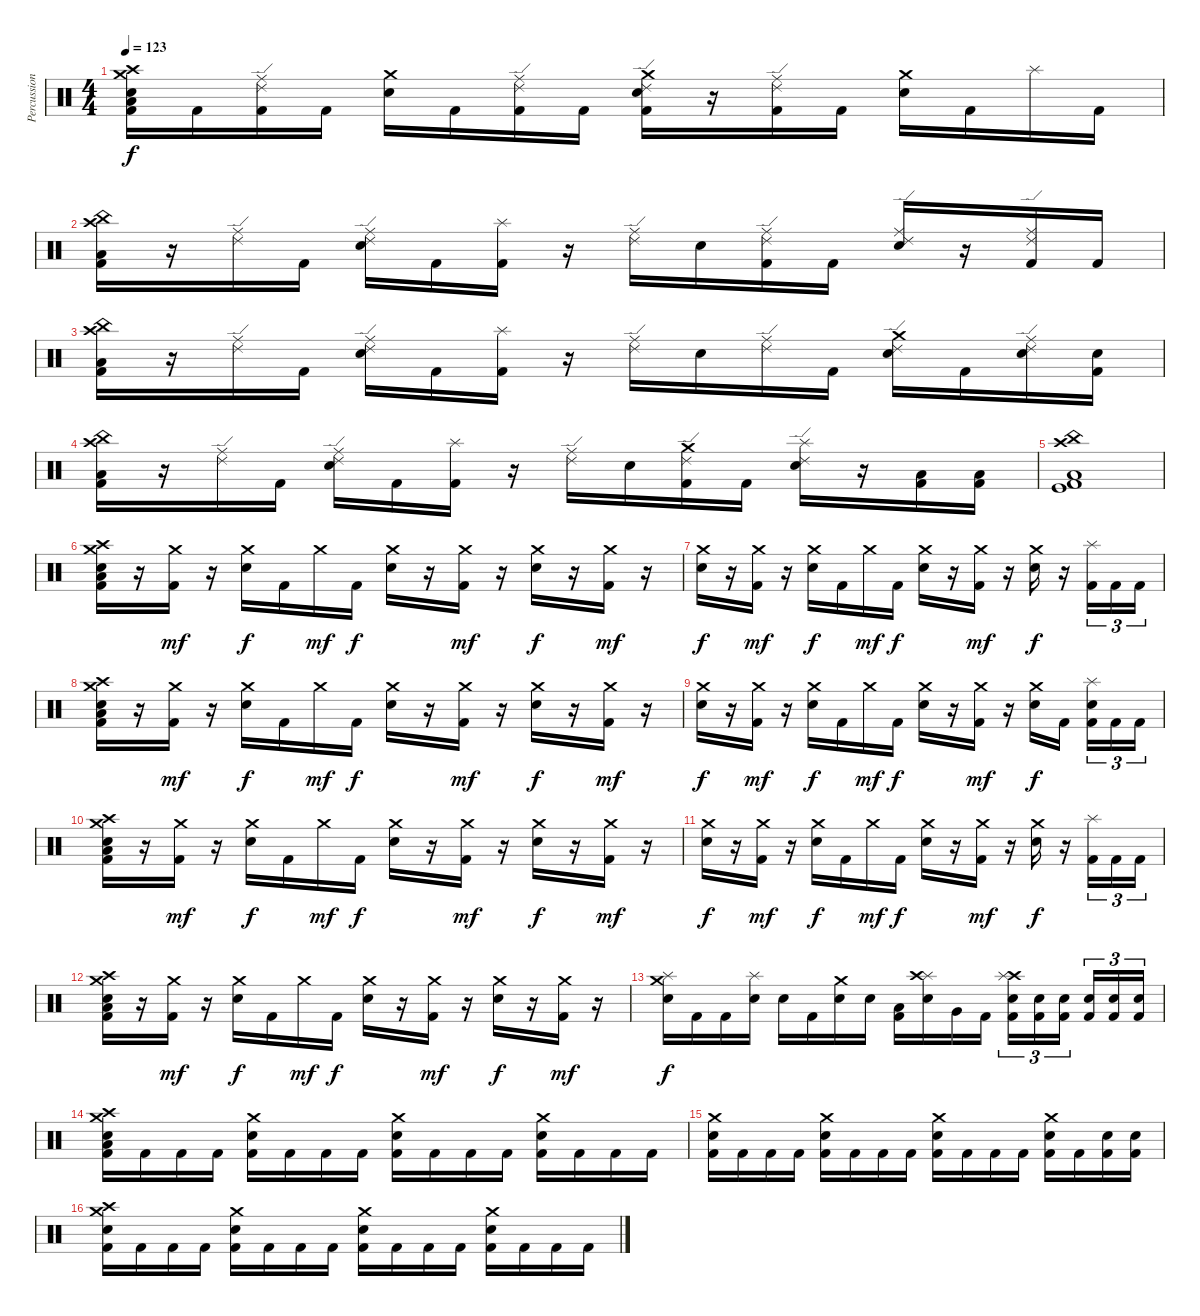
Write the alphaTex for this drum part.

\track ("Percussion" "Percussion") {instrument percussion}
\staff {score}
\articulation defaults
\ts (4 4)
\tempo 123
\clef neutral
\ks c
("Crash medium (hit)" "Crash high (hit)" "Electric Snare (hit)" "Low Floor Tom (hit)" "Kick (hit) 2").16{dy f} "Kick (hit) 2".16 ("Ride (middle)" "Ride (edge) 2" "Kick (hit) 2").16 "Kick (hit) 2".16 ("Crash medium (hit)" "Electric Snare (hit)").16 "Kick (hit) 2".16 ("Ride (middle)" "Ride (edge) 2" "Kick (hit) 2").16 "Kick (hit) 2".16 ("Crash medium (hit)" "Ride (edge) 2" "Electric Snare (hit)" "Kick (hit) 2").16 r.16 ("Ride (middle)" "Ride (edge) 2" "Kick (hit) 2").16 "Kick (hit) 2".16 ("Crash medium (hit)" "Electric Snare (hit)").16 "Kick (hit) 2".16 "Splash (hit)".16 "Kick (hit) 2".16 |
("China (hit)" "Crash high (hit)" "Low Floor Tom (hit)" "Kick (hit) 2").16 r.16 ("Ride (middle)" "Ride (edge) 2").16 "Kick (hit) 2".16 ("Ride (middle)" "Ride (edge) 2" "Electric Snare (hit)").16 "Kick (hit) 2".16 ("Splash (hit)" "Kick (hit) 2").16 r.16 ("Ride (middle)" "Ride (edge) 2").16 "Electric Snare (hit)".16 ("Ride (middle)" "Ride (edge) 2" "Kick (hit) 2").16 "Kick (hit) 2".16 ("Ride (middle)" "Ride (edge) 2" "Electric Snare (hit)").16 r.16 ("Ride (middle)" "Ride (edge) 2" "Kick (hit) 2").16 "Kick (hit) 2".16 |
("China (hit)" "Crash high (hit)" "Low Floor Tom (hit)" "Kick (hit) 2").16 r.16 ("Ride (middle)" "Ride (edge) 2").16 "Kick (hit) 2".16 ("Ride (middle)" "Ride (edge) 2" "Electric Snare (hit)").16 "Kick (hit) 2".16 ("Splash (hit)" "Kick (hit) 2").16 r.16 ("Ride (middle)" "Ride (edge) 2").16 "Electric Snare (hit)".16 ("Ride (middle)" "Ride (edge) 2").16 "Kick (hit) 2".16 ("Crash medium (hit)" "Ride (edge) 2" "Electric Snare (hit)").16 "Kick (hit) 2".16 ("Ride (middle)" "Ride (edge) 2" "Electric Snare (hit)").16 ("Electric Snare (hit)" "Kick (hit) 2").16 |
("China (hit)" "Crash high (hit)" "Low Floor Tom (hit)" "Kick (hit) 2").16 r.16 ("Ride (middle)" "Ride (edge) 2").16 "Kick (hit) 2".16 ("Ride (middle)" "Ride (edge) 2" "Electric Snare (hit)").16 "Kick (hit) 2".16 ("Splash (hit)" "Kick (hit) 2").16 r.16 ("Ride (middle)" "Ride (edge) 2").16 "Electric Snare (hit)".16 ("Crash medium (hit)" "Ride (edge) 2" "Kick (hit) 2").16 "Kick (hit) 2".16 ("Splash (hit)" "Ride (edge) 2" "Electric Snare (hit)").16 r.16 ("Low Tom (hit)" "Kick (hit) 2").16 ("Low Tom (hit)" "Kick (hit) 2").16 |
("China (hit)" "Crash high (hit)" "Low Floor Tom (hit)" "Kick (hit)" "Kick (hit) 2").1 |
("Crash medium (hit)" "Crash high (hit)" "Electric Snare (hit)" "Low Floor Tom (hit)" "Kick (hit) 2").16 r.16 ("Crash medium (hit)" "Kick (hit) 2").16{dy mf} r.16 ("Crash medium (hit)" "Electric Snare (hit)").16{dy f} "Kick (hit) 2".16 "Crash medium (hit)".16{dy mf} "Kick (hit) 2".16{dy f} ("Crash medium (hit)" "Electric Snare (hit)").16 r.16 ("Crash medium (hit)" "Kick (hit) 2").16{dy mf} r.16 ("Crash medium (hit)" "Electric Snare (hit)").16{dy f} r.16 ("Crash medium (hit)" "Kick (hit) 2").16{dy mf} r.16 |
("Crash medium (hit)" "Electric Snare (hit)").16{dy f} r.16 ("Crash medium (hit)" "Kick (hit) 2").16{dy mf} r.16 ("Crash medium (hit)" "Electric Snare (hit)").16{dy f} "Kick (hit) 2".16 "Crash medium (hit)".16{dy mf} "Kick (hit) 2".16{dy f} ("Crash medium (hit)" "Electric Snare (hit)").16 r.16 ("Crash medium (hit)" "Kick (hit) 2").16{dy mf} r.16 ("Crash medium (hit)" "Electric Snare (hit)").16{dy f} r.16 ("Splash (hit)" "Kick (hit) 2").16{tu (3 2)} "Kick (hit) 2".16{tu (3 2)} "Kick (hit) 2".16{tu (3 2)} |
("Crash medium (hit)" "Crash high (hit)" "Electric Snare (hit)" "Low Floor Tom (hit)" "Kick (hit) 2").16 r.16 ("Crash medium (hit)" "Kick (hit) 2").16{dy mf} r.16 ("Crash medium (hit)" "Electric Snare (hit)").16{dy f} "Kick (hit) 2".16 "Crash medium (hit)".16{dy mf} "Kick (hit) 2".16{dy f} ("Crash medium (hit)" "Electric Snare (hit)").16 r.16 ("Crash medium (hit)" "Kick (hit) 2").16{dy mf} r.16 ("Crash medium (hit)" "Electric Snare (hit)").16{dy f} r.16 ("Crash medium (hit)" "Kick (hit) 2").16{dy mf} r.16 |
("Crash medium (hit)" "Electric Snare (hit)").16{dy f} r.16 ("Crash medium (hit)" "Kick (hit) 2").16{dy mf} r.16 ("Crash medium (hit)" "Electric Snare (hit)").16{dy f} "Kick (hit) 2".16 "Crash medium (hit)".16{dy mf} "Kick (hit) 2".16{dy f} ("Crash medium (hit)" "Electric Snare (hit)").16 r.16 ("Crash medium (hit)" "Kick (hit) 2").16{dy mf} r.16 ("Crash medium (hit)" "Electric Snare (hit)").16{dy f} "Kick (hit) 2".16 ("Splash (hit)" "Electric Snare (hit)" "Kick (hit) 2").16{tu (3 2)} "Kick (hit) 2".16{tu (3 2)} "Kick (hit) 2".16{tu (3 2)} |
("Crash medium (hit)" "Crash high (hit)" "Electric Snare (hit)" "Low Floor Tom (hit)" "Kick (hit) 2").16 r.16 ("Crash medium (hit)" "Kick (hit) 2").16{dy mf} r.16 ("Crash medium (hit)" "Electric Snare (hit)").16{dy f} "Kick (hit) 2".16 "Crash medium (hit)".16{dy mf} "Kick (hit) 2".16{dy f} ("Crash medium (hit)" "Electric Snare (hit)").16 r.16 ("Crash medium (hit)" "Kick (hit) 2").16{dy mf} r.16 ("Crash medium (hit)" "Electric Snare (hit)").16{dy f} r.16 ("Crash medium (hit)" "Kick (hit) 2").16{dy mf} r.16 |
("Crash medium (hit)" "Electric Snare (hit)").16{dy f} r.16 ("Crash medium (hit)" "Kick (hit) 2").16{dy mf} r.16 ("Crash medium (hit)" "Electric Snare (hit)").16{dy f} "Kick (hit) 2".16 "Crash medium (hit)".16{dy mf} "Kick (hit) 2".16{dy f} ("Crash medium (hit)" "Electric Snare (hit)").16 r.16 ("Crash medium (hit)" "Kick (hit) 2").16{dy mf} r.16 ("Crash medium (hit)" "Electric Snare (hit)").16{dy f} r.16 ("Splash (hit)" "Kick (hit) 2").16{tu (3 2)} "Kick (hit) 2".16{tu (3 2)} "Kick (hit) 2".16{tu (3 2)} |
("Crash medium (hit)" "Crash high (hit)" "Electric Snare (hit)" "Low Floor Tom (hit)" "Kick (hit) 2").16 r.16 ("Crash medium (hit)" "Kick (hit) 2").16{dy mf} r.16 ("Crash medium (hit)" "Electric Snare (hit)").16{dy f} "Kick (hit) 2".16 "Crash medium (hit)".16{dy mf} "Kick (hit) 2".16{dy f} ("Crash medium (hit)" "Electric Snare (hit)").16 r.16 ("Crash medium (hit)" "Kick (hit) 2").16{dy mf} r.16 ("Crash medium (hit)" "Electric Snare (hit)").16{dy f} r.16 ("Crash medium (hit)" "Kick (hit) 2").16{dy mf} r.16 |
("Crash medium (hit)" "Splash (hit)" "Electric Snare (hit)").16{dy f} "Kick (hit) 2".16 "Kick (hit) 2".16 ("Splash (hit)" "Electric Snare (hit)").16 "Electric Snare (hit)".16 "Kick (hit) 2".16 ("Crash medium (hit)" "Electric Snare (hit)").16 "Electric Snare (hit)".16 ("Low Tom (hit)" "Kick (hit) 2").16 ("Splash (hit)" "Crash high (hit)" "Electric Snare (hit)").16 "Very Low Tom (hit)".16 "Kick (hit) 2".16 ("Crash high (hit)" "Splash (hit)" "Electric Snare (hit)" "Kick (hit) 2").16{tu (3 2)} ("Electric Snare (hit)" "Kick (hit) 2").16{tu (3 2)} ("Electric Snare (hit)" "Kick (hit) 2").16{tu (3 2)} ("Electric Snare (hit)" "Kick (hit) 2").16{tu (3 2)} ("Electric Snare (hit)" "Kick (hit) 2").16{tu (3 2)} ("Electric Snare (hit)" "Kick (hit) 2").16{tu (3 2)} |
("Crash medium (hit)" "Crash high (hit)" "Electric Snare (hit)" "Low Floor Tom (hit)" "Kick (hit) 2").16 "Kick (hit) 2".16 "Kick (hit) 2".16 "Kick (hit) 2".16 ("Crash medium (hit)" "Electric Snare (hit)" "Kick (hit) 2").16 "Kick (hit) 2".16 "Kick (hit) 2".16 "Kick (hit) 2".16 ("Crash medium (hit)" "Electric Snare (hit)" "Kick (hit) 2").16 "Kick (hit) 2".16 "Kick (hit) 2".16 "Kick (hit) 2".16 ("Crash medium (hit)" "Electric Snare (hit)" "Kick (hit) 2").16 "Kick (hit) 2".16 "Kick (hit) 2".16 "Kick (hit) 2".16 |
("Crash medium (hit)" "Electric Snare (hit)" "Kick (hit) 2").16 "Kick (hit) 2".16 "Kick (hit) 2".16 "Kick (hit) 2".16 ("Crash medium (hit)" "Electric Snare (hit)" "Kick (hit) 2").16 "Kick (hit) 2".16 "Kick (hit) 2".16 "Kick (hit) 2".16 ("Crash medium (hit)" "Electric Snare (hit)" "Kick (hit) 2").16 "Kick (hit) 2".16 "Kick (hit) 2".16 "Kick (hit) 2".16 ("Crash medium (hit)" "Electric Snare (hit)" "Kick (hit) 2").16 "Kick (hit) 2".16 ("Electric Snare (hit)" "Kick (hit) 2").16 ("Electric Snare (hit)" "Kick (hit) 2").16 |
("Crash medium (hit)" "Crash high (hit)" "Electric Snare (hit)" "Kick (hit) 2").16 "Kick (hit) 2".16 "Kick (hit) 2".16 "Kick (hit) 2".16 ("Crash medium (hit)" "Electric Snare (hit)" "Kick (hit) 2").16 "Kick (hit) 2".16 "Kick (hit) 2".16 "Kick (hit) 2".16 ("Crash medium (hit)" "Electric Snare (hit)" "Kick (hit) 2").16 "Kick (hit) 2".16 "Kick (hit) 2".16 "Kick (hit) 2".16 ("Crash medium (hit)" "Electric Snare (hit)" "Kick (hit) 2").16 "Kick (hit) 2".16 "Kick (hit) 2".16 "Kick (hit) 2".16
